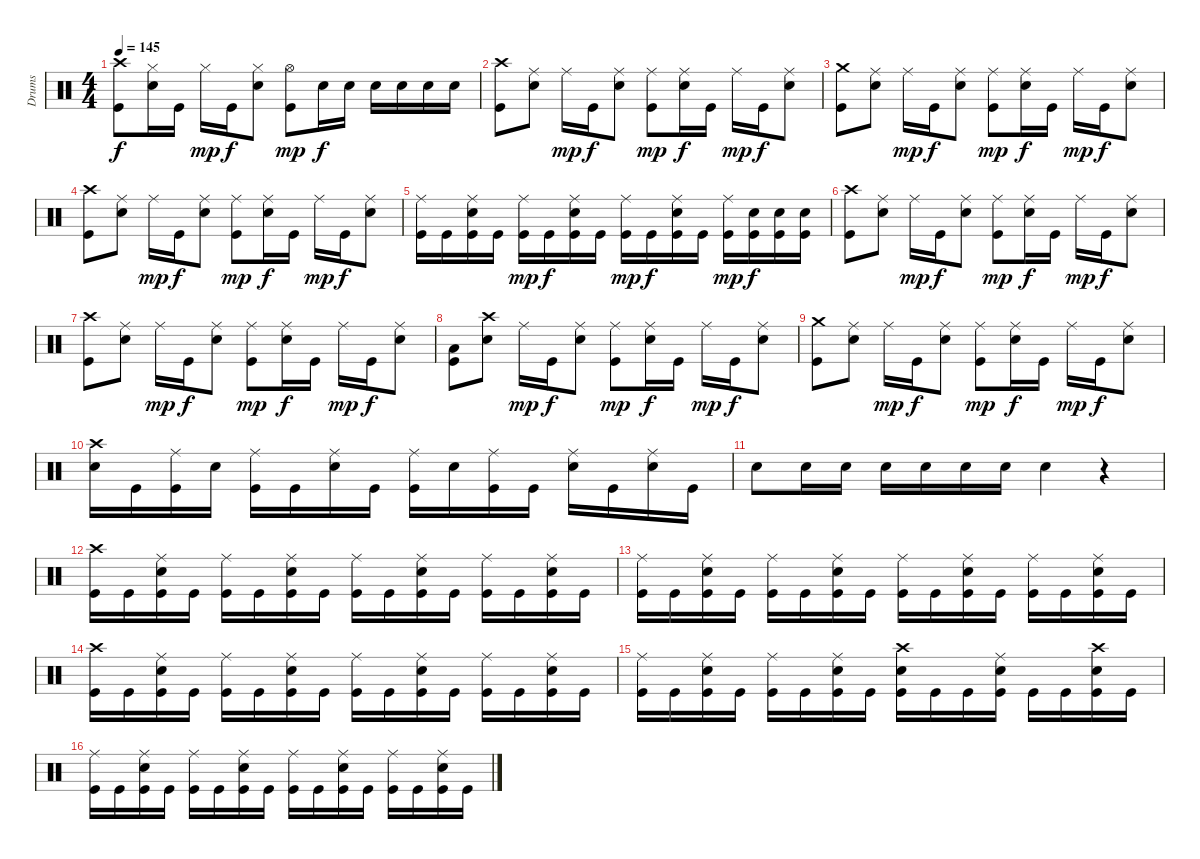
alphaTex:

\track ("Drums" "Drums") {instrument percussion}
\staff {score}
\articulation defaults
\ts (4 4)
\tempo 145
\clef neutral
\ks c
("Crash high (hit)" "Kick (hit)").8{dy f} ("Hi-Hat (closed)" "Snare (hit) 2").16 "Kick (hit)".16 "Hi-Hat (closed)".16{dy mp} "Kick (hit)".16{dy f} ("Hi-Hat (closed)" "Snare (hit) 2").8 ("Hi-Hat (open)" "Kick (hit)").8{dy mp} "Snare (hit) 2".16{dy f} "Snare (hit) 2".16 "Snare (hit) 2".16 "Snare (hit) 2".16 "Snare (hit) 2".16 "Snare (hit) 2".16 |
("Crash high (hit)" "Kick (hit)").8 ("Ride (middle)" "Snare (hit) 2").8 "Ride (middle)".16{dy mp} "Kick (hit)".16{dy f} ("Ride (middle)" "Snare (hit) 2").8 ("Ride (middle)" "Kick (hit)").8{dy mp} ("Ride (middle)" "Snare (hit) 2").16{dy f} "Kick (hit)".16 "Ride (middle)".16{dy mp} "Kick (hit)".16{dy f} ("Ride (middle)" "Snare (hit) 2").8 |
("Crash medium (hit)" "Kick (hit)").8 ("Ride (middle)" "Snare (hit) 2").8 "Ride (middle)".16{dy mp} "Kick (hit)".16{dy f} ("Ride (middle)" "Snare (hit) 2").8 ("Ride (middle)" "Kick (hit)").8{dy mp} ("Ride (middle)" "Snare (hit) 2").16{dy f} "Kick (hit)".16 "Ride (middle)".16{dy mp} "Kick (hit)".16{dy f} ("Ride (middle)" "Snare (hit) 2").8 |
("Crash high (hit)" "Kick (hit)").8 ("Ride (middle)" "Snare (hit) 2").8 "Ride (middle)".16{dy mp} "Kick (hit)".16{dy f} ("Ride (middle)" "Snare (hit) 2").8 ("Ride (middle)" "Kick (hit)").8{dy mp} ("Ride (middle)" "Snare (hit) 2").16{dy f} "Kick (hit)".16 "Ride (middle)".16{dy mp} "Kick (hit)".16{dy f} ("Ride (middle)" "Snare (hit) 2").8 |
("Ride (middle)" "Kick (hit)").16 "Kick (hit)".16 ("Ride (middle)" "Snare (hit) 2" "Kick (hit)").16 "Kick (hit)".16 ("Ride (middle)" "Kick (hit)").16{dy mp} "Kick (hit)".16{dy f} ("Ride (middle)" "Snare (hit) 2" "Kick (hit)").16 "Kick (hit)".16 ("Ride (middle)" "Kick (hit)").16{dy mp} "Kick (hit)".16{dy f} ("Ride (middle)" "Snare (hit) 2" "Kick (hit)").16 "Kick (hit)".16 ("Ride (middle)" "Kick (hit)").16{dy mp} ("Snare (hit) 2" "Kick (hit)").16{dy f} ("Snare (hit) 2" "Kick (hit)").16 ("Snare (hit) 2" "Kick (hit)").16 |
("Crash high (hit)" "Kick (hit)").8 ("Ride (middle)" "Snare (hit) 2").8 "Ride (middle)".16{dy mp} "Kick (hit)".16{dy f} ("Ride (middle)" "Snare (hit) 2").8 ("Ride (middle)" "Kick (hit)").8{dy mp} ("Ride (middle)" "Snare (hit) 2").16{dy f} "Kick (hit)".16 "Ride (middle)".16{dy mp} "Kick (hit)".16{dy f} ("Ride (middle)" "Snare (hit) 2").8 |
("Crash high (hit)" "Kick (hit)").8 ("Ride (middle)" "Snare (hit) 2").8 "Ride (middle)".16{dy mp} "Kick (hit)".16{dy f} ("Ride (middle)" "Snare (hit) 2").8 ("Ride (middle)" "Kick (hit)").8{dy mp} ("Ride (middle)" "Snare (hit) 2").16{dy f} "Kick (hit)".16 "Ride (middle)".16{dy mp} "Kick (hit)".16{dy f} ("Ride (middle)" "Snare (hit) 2").8 |
("Kick (hit)" "Low Floor Tom (hit)").8 ("Crash high (hit)" "Snare (hit) 2").8 "Ride (middle)".16{dy mp} "Kick (hit)".16{dy f} ("Ride (middle)" "Snare (hit) 2").8 ("Ride (middle)" "Kick (hit)").8{dy mp} ("Ride (middle)" "Snare (hit) 2").16{dy f} "Kick (hit)".16 "Ride (middle)".16{dy mp} "Kick (hit)".16{dy f} ("Ride (middle)" "Snare (hit) 2").8 |
("Crash medium (hit)" "Kick (hit)").8 ("Ride (middle)" "Snare (hit) 2").8 "Ride (middle)".16{dy mp} "Kick (hit)".16{dy f} ("Ride (middle)" "Snare (hit) 2").8 ("Ride (middle)" "Kick (hit)").8{dy mp} ("Ride (middle)" "Snare (hit) 2").16{dy f} "Kick (hit)".16 "Ride (middle)".16{dy mp} "Kick (hit)".16{dy f} ("Ride (middle)" "Snare (hit) 2").8 |
("Crash high (hit)" "Snare (hit) 2").16 "Kick (hit)".16 ("Ride (middle)" "Kick (hit)").16 "Snare (hit) 2".16 ("Ride (middle)" "Kick (hit)").16 "Kick (hit)".16 ("Ride (middle)" "Snare (hit) 2").16 "Kick (hit)".16 ("Ride (middle)" "Kick (hit)").16 "Snare (hit) 2".16 ("Ride (middle)" "Kick (hit)").16 "Kick (hit)".16 ("Ride (middle)" "Snare (hit) 2").16 "Kick (hit)".16 ("Ride (middle)" "Snare (hit) 2").16 "Kick (hit)".16 |
"Snare (hit) 2".8 "Snare (hit) 2".16 "Snare (hit) 2".16 "Snare (hit) 2".16 "Snare (hit) 2".16 "Snare (hit) 2".16 "Snare (hit) 2".16 "Snare (hit) 2".4 r.4 |
("Crash high (hit)" "Kick (hit)").16 "Kick (hit)".16 ("Ride (middle)" "Snare (hit) 2" "Kick (hit)").16 "Kick (hit)".16 ("Ride (middle)" "Kick (hit)").16 "Kick (hit)".16 ("Ride (middle)" "Snare (hit) 2" "Kick (hit)").16 "Kick (hit)".16 ("Ride (middle)" "Kick (hit)").16 "Kick (hit)".16 ("Ride (middle)" "Snare (hit) 2" "Kick (hit)").16 "Kick (hit)".16 ("Ride (middle)" "Kick (hit)").16 "Kick (hit)".16 ("Ride (middle)" "Snare (hit) 2" "Kick (hit)").16 "Kick (hit)".16 |
("Ride (middle)" "Kick (hit)").16 "Kick (hit)".16 ("Ride (middle)" "Snare (hit) 2" "Kick (hit)").16 "Kick (hit)".16 ("Ride (middle)" "Kick (hit)").16 "Kick (hit)".16 ("Ride (middle)" "Snare (hit) 2" "Kick (hit)").16 "Kick (hit)".16 ("Ride (middle)" "Kick (hit)").16 "Kick (hit)".16 ("Ride (middle)" "Snare (hit) 2" "Kick (hit)").16 "Kick (hit)".16 ("Ride (middle)" "Kick (hit)").16 "Kick (hit)".16 ("Ride (middle)" "Snare (hit) 2" "Kick (hit)").16 "Kick (hit)".16 |
("Crash high (hit)" "Kick (hit)").16 "Kick (hit)".16 ("Ride (middle)" "Snare (hit) 2" "Kick (hit)").16 "Kick (hit)".16 ("Ride (middle)" "Kick (hit)").16 "Kick (hit)".16 ("Ride (middle)" "Snare (hit) 2" "Kick (hit)").16 "Kick (hit)".16 ("Ride (middle)" "Kick (hit)").16 "Kick (hit)".16 ("Ride (middle)" "Snare (hit) 2" "Kick (hit)").16 "Kick (hit)".16 ("Ride (middle)" "Kick (hit)").16 "Kick (hit)".16 ("Ride (middle)" "Snare (hit) 2" "Kick (hit)").16 "Kick (hit)".16 |
("Ride (middle)" "Kick (hit)").16 "Kick (hit)".16 ("Ride (middle)" "Snare (hit) 2" "Kick (hit)").16 "Kick (hit)".16 ("Ride (middle)" "Kick (hit)").16 "Kick (hit)".16 ("Ride (middle)" "Snare (hit) 2" "Kick (hit)").16 "Kick (hit)".16 ("Crash high (hit)" "Snare (hit) 2" "Kick (hit)").16 "Kick (hit)".16 "Kick (hit)".16 ("Ride (middle)" "Snare (hit) 2" "Kick (hit)").16 "Kick (hit)".16 "Kick (hit)".16 ("Crash high (hit)" "Snare (hit) 2" "Kick (hit)").16 "Kick (hit)".16 |
("Ride (middle)" "Kick (hit)").16 "Kick (hit)".16 ("Ride (middle)" "Snare (hit) 2" "Kick (hit)").16 "Kick (hit)".16 ("Ride (middle)" "Kick (hit)").16 "Kick (hit)".16 ("Ride (middle)" "Snare (hit) 2" "Kick (hit)").16 "Kick (hit)".16 ("Ride (middle)" "Kick (hit)").16 "Kick (hit)".16 ("Ride (middle)" "Snare (hit) 2" "Kick (hit)").16 "Kick (hit)".16 ("Ride (middle)" "Kick (hit)").16 "Kick (hit)".16 ("Ride (middle)" "Snare (hit) 2" "Kick (hit)").16 "Kick (hit)".16
